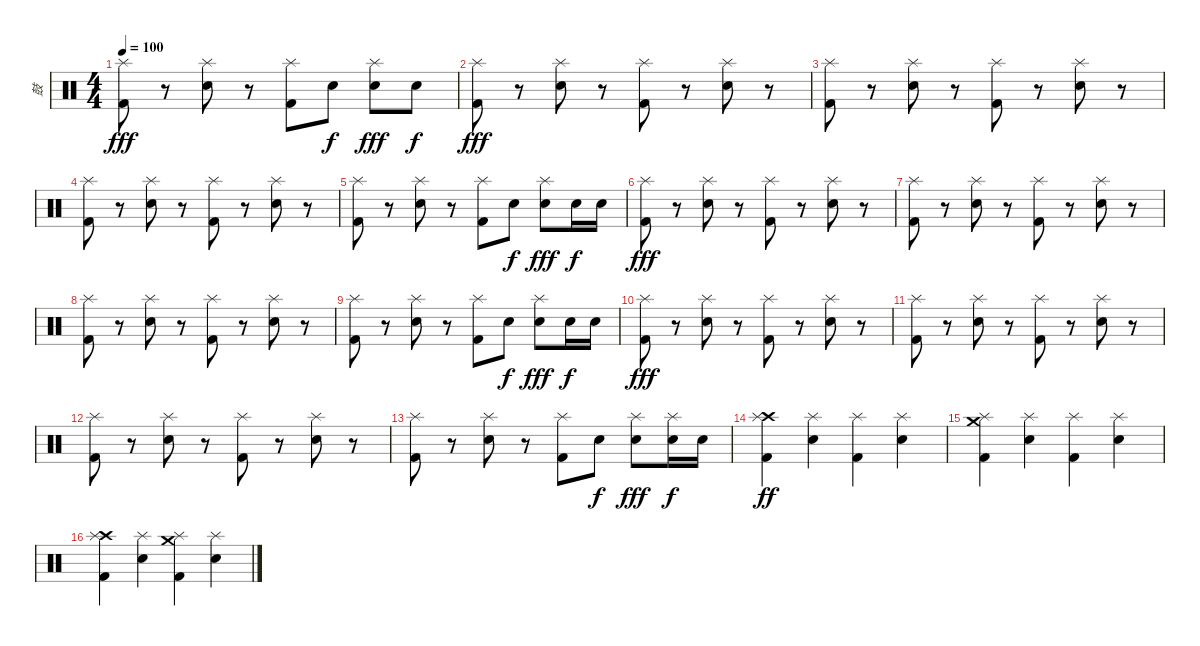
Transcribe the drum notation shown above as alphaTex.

\track ("鼓" "鼓") {instrument percussion}
\staff {score}
\articulation defaults
\ts (4 4)
\tempo 100
\clef neutral
\ks c
("Splash (hit)" "Kick (hit) 2").8{dy fff} r.8 ("Splash (hit)" "Snare (hit) 2").8 r.8 ("Splash (hit)" "Kick (hit) 2").8 "Snare (hit) 2".8{dy f} ("Splash (hit)" "Snare (hit) 2").8{dy fff} "Snare (hit) 2".8{dy f} |
("Splash (hit)" "Kick (hit) 2").8{dy fff} r.8 ("Splash (hit)" "Snare (hit) 2").8 r.8 ("Splash (hit)" "Kick (hit) 2").8 r.8 ("Splash (hit)" "Snare (hit) 2").8 r.8 |
("Splash (hit)" "Kick (hit) 2").8 r.8 ("Splash (hit)" "Snare (hit) 2").8 r.8 ("Splash (hit)" "Kick (hit) 2").8 r.8 ("Splash (hit)" "Snare (hit) 2").8 r.8 |
("Splash (hit)" "Kick (hit) 2").8 r.8 ("Splash (hit)" "Snare (hit) 2").8 r.8 ("Splash (hit)" "Kick (hit) 2").8 r.8 ("Splash (hit)" "Snare (hit) 2").8 r.8 |
("Splash (hit)" "Kick (hit) 2").8 r.8 ("Splash (hit)" "Snare (hit) 2").8 r.8 ("Splash (hit)" "Kick (hit) 2").8 "Snare (hit) 2".8{dy f} ("Splash (hit)" "Snare (hit) 2").8{dy fff} "Snare (hit) 2".16{dy f} "Snare (hit) 2".16 |
("Splash (hit)" "Kick (hit) 2").8{dy fff} r.8 ("Splash (hit)" "Snare (hit) 2").8 r.8 ("Splash (hit)" "Kick (hit) 2").8 r.8 ("Splash (hit)" "Snare (hit) 2").8 r.8 |
("Splash (hit)" "Kick (hit) 2").8 r.8 ("Splash (hit)" "Snare (hit) 2").8 r.8 ("Splash (hit)" "Kick (hit) 2").8 r.8 ("Splash (hit)" "Snare (hit) 2").8 r.8 |
("Splash (hit)" "Kick (hit) 2").8 r.8 ("Splash (hit)" "Snare (hit) 2").8 r.8 ("Splash (hit)" "Kick (hit) 2").8 r.8 ("Splash (hit)" "Snare (hit) 2").8 r.8 |
("Splash (hit)" "Kick (hit) 2").8 r.8 ("Splash (hit)" "Snare (hit) 2").8 r.8 ("Splash (hit)" "Kick (hit) 2").8 "Snare (hit) 2".8{dy f} ("Splash (hit)" "Snare (hit) 2").8{dy fff} "Snare (hit) 2".16{dy f} "Snare (hit) 2".16 |
("Splash (hit)" "Kick (hit) 2").8{dy fff} r.8 ("Splash (hit)" "Snare (hit) 2").8 r.8 ("Splash (hit)" "Kick (hit) 2").8 r.8 ("Splash (hit)" "Snare (hit) 2").8 r.8 |
("Splash (hit)" "Kick (hit) 2").8 r.8 ("Splash (hit)" "Snare (hit) 2").8 r.8 ("Splash (hit)" "Kick (hit) 2").8 r.8 ("Splash (hit)" "Snare (hit) 2").8 r.8 |
("Splash (hit)" "Kick (hit) 2").8 r.8 ("Splash (hit)" "Snare (hit) 2").8 r.8 ("Splash (hit)" "Kick (hit) 2").8 r.8 ("Splash (hit)" "Snare (hit) 2").8 r.8 |
("Splash (hit)" "Kick (hit) 2").8 r.8 ("Splash (hit)" "Snare (hit) 2").8 r.8 ("Splash (hit)" "Kick (hit) 2").8 "Snare (hit) 2".8{dy f} ("Splash (hit)" "Snare (hit) 2").8{dy fff} ("Splash (hit)" "Snare (hit) 2").16{dy f} "Snare (hit) 2".16 |
("Crash high (hit)" "Splash (hit)" "Kick (hit) 2").4{dy ff} ("Splash (hit)" "Snare (hit) 2").4 ("Splash (hit)" "Kick (hit) 2").4 ("Splash (hit)" "Snare (hit) 2").4 |
("Crash medium (hit)" "Splash (hit)" "Kick (hit) 2").4 ("Splash (hit)" "Snare (hit) 2").4 ("Splash (hit)" "Kick (hit) 2").4 ("Splash (hit)" "Snare (hit) 2").4 |
("Crash high (hit)" "Splash (hit)" "Kick (hit) 2").4 ("Splash (hit)" "Snare (hit) 2").4 ("Crash medium (hit)" "Splash (hit)" "Kick (hit) 2").4 ("Splash (hit)" "Snare (hit) 2").4
